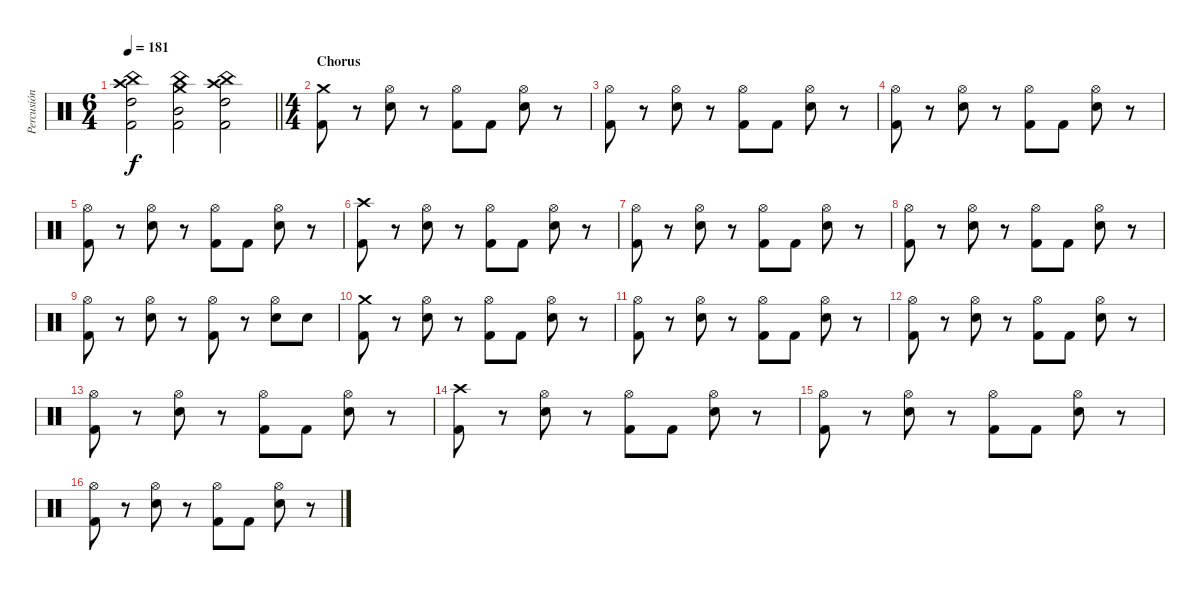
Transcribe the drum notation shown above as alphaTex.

\track ("Percusión" "Percusión") {instrument percussion}
\staff {score}
\articulation defaults
\ts (6 4)
\tempo 181
\clef neutral
\barLineRight lightlight
\ks c
("Crash high (hit)" "China (hit)" "High Tom (hit)" "Kick (hit) 2").2{dy f} ("Crash medium (hit)" "China (hit)" "Mid Tom (hit)" "Kick (hit) 2").2 ("Crash high (hit)" "China (hit)" "High Tom (hit)" "Kick (hit) 2").2 |
\ts (4 4)
\section ("" "Chorus")
("Crash medium (hit)" "Kick (hit) 2").8 r.8 ("Hi-Hat (open)" "Electric Snare (hit)").8 r.8 ("Hi-Hat (open)" "Kick (hit) 2").8 "Kick (hit) 2".8 ("Hi-Hat (open)" "Electric Snare (hit)").8 r.8 |
("Hi-Hat (open)" "Kick (hit) 2").8 r.8 ("Hi-Hat (open)" "Electric Snare (hit)").8 r.8 ("Hi-Hat (open)" "Kick (hit) 2").8 "Kick (hit) 2".8 ("Hi-Hat (open)" "Electric Snare (hit)").8 r.8 |
("Hi-Hat (open)" "Kick (hit) 2").8 r.8 ("Hi-Hat (open)" "Electric Snare (hit)").8 r.8 ("Hi-Hat (open)" "Kick (hit) 2").8 "Kick (hit) 2".8 ("Hi-Hat (open)" "Electric Snare (hit)").8 r.8 |
("Hi-Hat (open)" "Kick (hit) 2").8 r.8 ("Hi-Hat (open)" "Electric Snare (hit)").8 r.8 ("Hi-Hat (open)" "Kick (hit) 2").8 "Kick (hit) 2".8 ("Hi-Hat (open)" "Electric Snare (hit)").8 r.8 |
("Crash high (hit)" "Kick (hit) 2").8 r.8 ("Hi-Hat (open)" "Electric Snare (hit)").8 r.8 ("Hi-Hat (open)" "Kick (hit) 2").8 "Kick (hit) 2".8 ("Hi-Hat (open)" "Electric Snare (hit)").8 r.8 |
("Hi-Hat (open)" "Kick (hit) 2").8 r.8 ("Hi-Hat (open)" "Electric Snare (hit)").8 r.8 ("Hi-Hat (open)" "Kick (hit) 2").8 "Kick (hit) 2".8 ("Hi-Hat (open)" "Electric Snare (hit)").8 r.8 |
("Hi-Hat (open)" "Kick (hit) 2").8 r.8 ("Hi-Hat (open)" "Electric Snare (hit)").8 r.8 ("Hi-Hat (open)" "Kick (hit) 2").8 "Kick (hit) 2".8 ("Hi-Hat (open)" "Electric Snare (hit)").8 r.8 |
("Hi-Hat (open)" "Kick (hit) 2").8 r.8 ("Hi-Hat (open)" "Electric Snare (hit)").8 r.8 ("Hi-Hat (open)" "Kick (hit) 2").8 r.8 ("Hi-Hat (open)" "Electric Snare (hit)").8 "Electric Snare (hit)".8 |
("Crash medium (hit)" "Kick (hit) 2").8 r.8 ("Hi-Hat (open)" "Electric Snare (hit)").8 r.8 ("Hi-Hat (open)" "Kick (hit) 2").8 "Kick (hit) 2".8 ("Hi-Hat (open)" "Electric Snare (hit)").8 r.8 |
("Hi-Hat (open)" "Kick (hit) 2").8 r.8 ("Hi-Hat (open)" "Electric Snare (hit)").8 r.8 ("Hi-Hat (open)" "Kick (hit) 2").8 "Kick (hit) 2".8 ("Hi-Hat (open)" "Electric Snare (hit)").8 r.8 |
("Hi-Hat (open)" "Kick (hit) 2").8 r.8 ("Hi-Hat (open)" "Electric Snare (hit)").8 r.8 ("Hi-Hat (open)" "Kick (hit) 2").8 "Kick (hit) 2".8 ("Hi-Hat (open)" "Electric Snare (hit)").8 r.8 |
("Hi-Hat (open)" "Kick (hit) 2").8 r.8 ("Hi-Hat (open)" "Electric Snare (hit)").8 r.8 ("Hi-Hat (open)" "Kick (hit) 2").8 "Kick (hit) 2".8 ("Hi-Hat (open)" "Electric Snare (hit)").8 r.8 |
("Crash high (hit)" "Kick (hit) 2").8 r.8 ("Hi-Hat (open)" "Electric Snare (hit)").8 r.8 ("Hi-Hat (open)" "Kick (hit) 2").8 "Kick (hit) 2".8 ("Hi-Hat (open)" "Electric Snare (hit)").8 r.8 |
("Hi-Hat (open)" "Kick (hit) 2").8 r.8 ("Hi-Hat (open)" "Electric Snare (hit)").8 r.8 ("Hi-Hat (open)" "Kick (hit) 2").8 "Kick (hit) 2".8 ("Hi-Hat (open)" "Electric Snare (hit)").8 r.8 |
("Hi-Hat (open)" "Kick (hit) 2").8 r.8 ("Hi-Hat (open)" "Electric Snare (hit)").8 r.8 ("Hi-Hat (open)" "Kick (hit) 2").8 "Kick (hit) 2".8 ("Hi-Hat (open)" "Electric Snare (hit)").8 r.8
